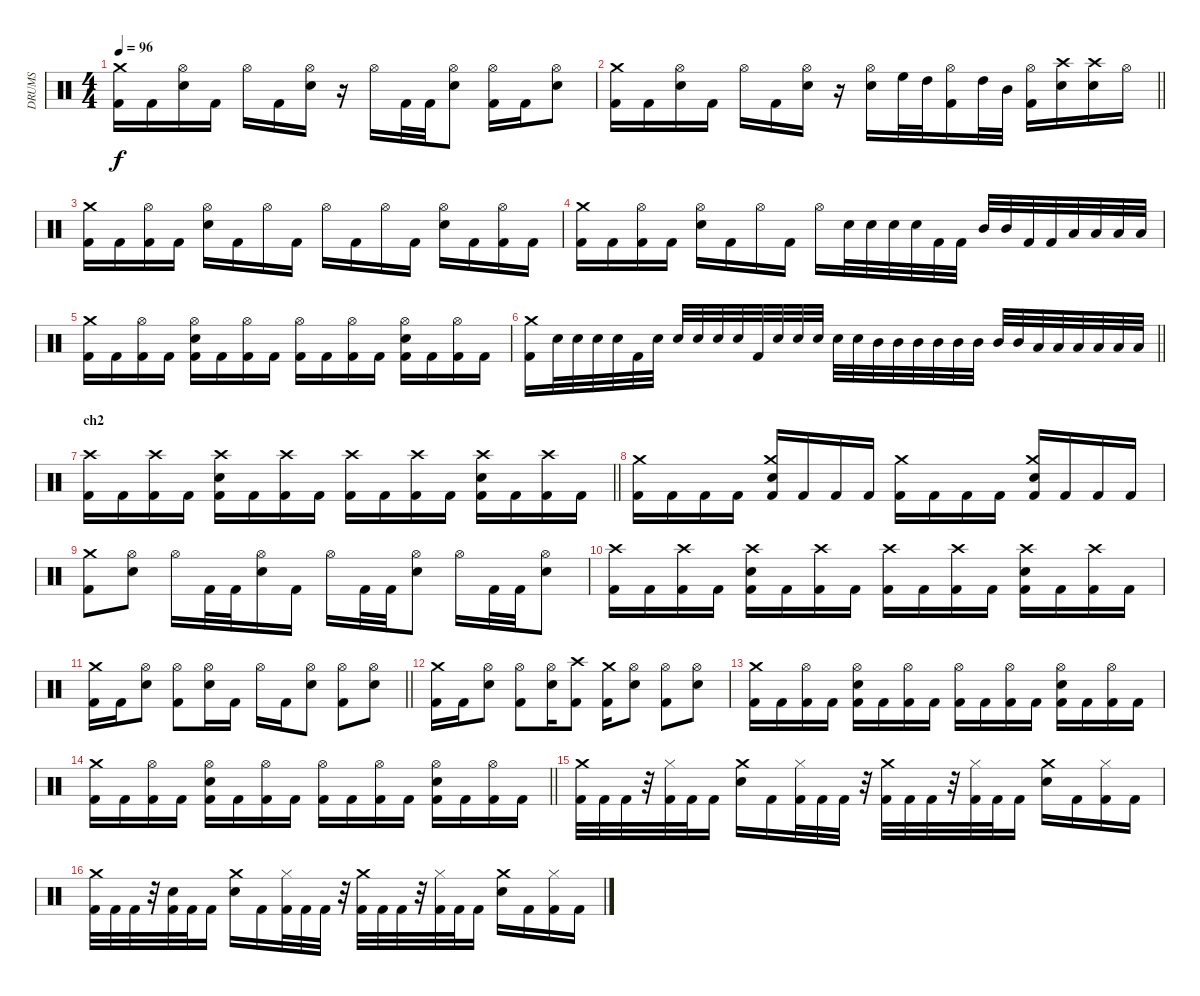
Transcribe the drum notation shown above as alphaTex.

\track ("DRUMS" "DRUMS") {instrument percussion}
\staff {score}
\articulation defaults
\ts (4 4)
\tempo 96
\clef neutral
\ks c
("Kick (hit) 2" "Crash medium (hit)").16{dy f} "Kick (hit) 2".16 ("Electric Snare (hit)" "Hi-Hat (open)").16 "Kick (hit) 2".16 "Hi-Hat (open)".16 "Kick (hit) 2".16 ("Electric Snare (hit)" "Hi-Hat (open)").16 r.16 "Hi-Hat (open)".16 "Kick (hit) 2".32 "Kick (hit) 2".32 ("Electric Snare (hit)" "Hi-Hat (open)").8 ("Kick (hit) 2" "Hi-Hat (open)").16 "Kick (hit) 2".16 ("Electric Snare (hit)" "Hi-Hat (open)").8 |
\barLineRight lightlight
("Kick (hit) 2" "Crash medium (hit)").16 "Kick (hit) 2".16 ("Electric Snare (hit)" "Hi-Hat (open)").16 "Kick (hit) 2".16 "Hi-Hat (open)".16 "Kick (hit) 2".16 ("Electric Snare (hit)" "Hi-Hat (open)").16 r.16 ("Electric Snare (hit)" "Hi-Hat (open)").16 "High Floor Tom (hit)".32 "High Tom (hit)".32 ("Kick (hit) 2" "Hi-Hat (open)").16 "High Tom (hit)".32 "Mid Tom (hit)".32 ("Kick (hit) 2" "Hi-Hat (open)").16 ("Electric Snare (hit)" "Crash high (hit)").16 ("Electric Snare (hit)" "Crash high (hit)").16 "Hi-Hat (open)".16 |
("Kick (hit) 2" "Crash medium (hit)").16 "Kick (hit) 2".16 ("Kick (hit) 2" "Hi-Hat (open)").16 "Kick (hit) 2".16 ("Electric Snare (hit)" "Hi-Hat (open)").16 "Kick (hit) 2".16 "Hi-Hat (open)".16 "Kick (hit) 2".16 "Hi-Hat (open)".16 "Kick (hit) 2".16 "Hi-Hat (open)".16 "Kick (hit) 2".16 ("Electric Snare (hit)" "Hi-Hat (open)").16 "Kick (hit) 2".16 ("Kick (hit) 2" "Hi-Hat (open)").16 "Kick (hit) 2".16 |
("Kick (hit) 2" "Crash medium (hit)").16 "Kick (hit) 2".16 ("Kick (hit) 2" "Hi-Hat (open)").16 "Kick (hit) 2".16 ("Electric Snare (hit)" "Hi-Hat (open)").16 "Kick (hit) 2".16 "Hi-Hat (open)".16 "Kick (hit) 2".16 "Hi-Hat (open)".16 "Electric Snare (hit)".32 "Electric Snare (hit)".32 "Electric Snare (hit)".32 "Electric Snare (hit)".32 "Kick (hit) 2".32 "Kick (hit) 2".32 "Mid Tom (hit)".32 "Mid Tom (hit)".32 "Kick (hit) 2".32 "Kick (hit) 2".32 "Low Tom (hit)".32 "Low Tom (hit)".32 "Low Tom (hit)".32 "Low Tom (hit)".32 |
("Kick (hit) 2" "Crash medium (hit)").16 "Kick (hit) 2".16 ("Kick (hit) 2" "Hi-Hat (open)").16 "Kick (hit) 2".16 ("Kick (hit) 2" "Electric Snare (hit)" "Hi-Hat (open)").16 "Kick (hit) 2".16 ("Kick (hit) 2" "Hi-Hat (open)").16 "Kick (hit) 2".16 ("Kick (hit) 2" "Hi-Hat (open)").16 "Kick (hit) 2".16 ("Kick (hit) 2" "Hi-Hat (open)").16 "Kick (hit) 2".16 ("Kick (hit) 2" "Electric Snare (hit)" "Hi-Hat (open)").16 "Kick (hit) 2".16 ("Kick (hit) 2" "Hi-Hat (open)").16 "Kick (hit) 2".16 |
\barLineRight lightlight
("Kick (hit) 2" "Crash medium (hit)").16 "Electric Snare (hit)".32 "Electric Snare (hit)".32 "Electric Snare (hit)".32 "Electric Snare (hit)".32 "Kick (hit) 2".32 "Electric Snare (hit)".32 "Electric Snare (hit)".32 "Electric Snare (hit)".32 "Electric Snare (hit)".32 "Electric Snare (hit)".32 "Kick (hit) 2".32 "Electric Snare (hit)".32 "Electric Snare (hit)".32 "Electric Snare (hit)".32 "Electric Snare (hit)".32 "Electric Snare (hit)".32 "Mid Tom (hit)".32 "Mid Tom (hit)".32 "Mid Tom (hit)".32 "Mid Tom (hit)".32 "Mid Tom (hit)".32 "Mid Tom (hit)".32 "Mid Tom (hit)".32 "Mid Tom (hit)".32 "Low Tom (hit)".32 "Low Tom (hit)".32 "Low Tom (hit)".32 "Low Tom (hit)".32 "Low Tom (hit)".32 "Low Tom (hit)".32 |
\section ("" "ch2")
\barLineRight lightlight
("Kick (hit) 2" "Crash high (hit)").16 "Kick (hit) 2".16 ("Kick (hit) 2" "Crash high (hit)").16 "Kick (hit) 2".16 ("Kick (hit) 2" "Electric Snare (hit)" "Crash high (hit)").16 "Kick (hit) 2".16 ("Kick (hit) 2" "Crash high (hit)").16 "Kick (hit) 2".16 ("Kick (hit) 2" "Crash high (hit)").16 "Kick (hit) 2".16 ("Kick (hit) 2" "Crash high (hit)").16 "Kick (hit) 2".16 ("Kick (hit) 2" "Electric Snare (hit)" "Crash high (hit)").16 "Kick (hit) 2".16 ("Kick (hit) 2" "Crash high (hit)").16 "Kick (hit) 2".16 |
("Kick (hit) 2" "Crash medium (hit)").16 "Kick (hit) 2".16 "Kick (hit) 2".16 "Kick (hit) 2".16 ("Kick (hit) 2" "Electric Snare (hit)" "Crash medium (hit)").16 "Kick (hit) 2".16 "Kick (hit) 2".16 "Kick (hit) 2".16 ("Kick (hit) 2" "Crash medium (hit)").16 "Kick (hit) 2".16 "Kick (hit) 2".16 "Kick (hit) 2".16 ("Kick (hit) 2" "Electric Snare (hit)" "Crash medium (hit)").16 "Kick (hit) 2".16 "Kick (hit) 2".16 "Kick (hit) 2".16 |
("Kick (hit) 2" "Crash medium (hit)").8 ("Electric Snare (hit)" "Hi-Hat (open)").8 "Hi-Hat (open)".16 "Kick (hit) 2".32 "Kick (hit) 2".32 ("Electric Snare (hit)" "Hi-Hat (open)").16 "Kick (hit) 2".16 "Hi-Hat (open)".16 "Kick (hit) 2".32 "Kick (hit) 2".32 ("Electric Snare (hit)" "Hi-Hat (open)").8 "Hi-Hat (open)".16 "Kick (hit) 2".32 "Kick (hit) 2".32 ("Electric Snare (hit)" "Hi-Hat (open)").8 |
("Kick (hit) 2" "Crash high (hit)").16 "Kick (hit) 2".16 ("Kick (hit) 2" "Crash high (hit)").16 "Kick (hit) 2".16 ("Kick (hit) 2" "Electric Snare (hit)" "Crash high (hit)").16 "Kick (hit) 2".16 ("Kick (hit) 2" "Crash high (hit)").16 "Kick (hit) 2".16 ("Kick (hit) 2" "Crash high (hit)").16 "Kick (hit) 2".16 ("Kick (hit) 2" "Crash high (hit)").16 "Kick (hit) 2".16 ("Kick (hit) 2" "Electric Snare (hit)" "Crash high (hit)").16 "Kick (hit) 2".16 ("Kick (hit) 2" "Crash high (hit)").16 "Kick (hit) 2".16 |
\barLineRight lightlight
("Kick (hit) 2" "Crash medium (hit)").16 "Kick (hit) 2".16 ("Electric Snare (hit)" "Hi-Hat (open)").8 ("Kick (hit) 2" "Hi-Hat (open)").8 ("Electric Snare (hit)" "Hi-Hat (open)").16 "Kick (hit) 2".16 "Hi-Hat (open)".16 "Kick (hit) 2".16 ("Electric Snare (hit)" "Hi-Hat (open)").8 ("Kick (hit) 2" "Hi-Hat (open)").8 ("Electric Snare (hit)" "Hi-Hat (open)").8 |
("Kick (hit) 2" "Crash medium (hit)").16 "Kick (hit) 2".16 ("Electric Snare (hit)" "Hi-Hat (open)").8 ("Kick (hit) 2" "Hi-Hat (open)").8 ("Electric Snare (hit)" "Hi-Hat (open)").16 ("Kick (hit) 2" "Crash high (hit)").8 ("Kick (hit) 2" "Crash medium (hit)").16 ("Electric Snare (hit)" "Hi-Hat (open)").8 ("Kick (hit) 2" "Hi-Hat (open)").8 ("Electric Snare (hit)" "Hi-Hat (open)").8 |
("Kick (hit) 2" "Crash medium (hit)").16 "Kick (hit) 2".16 ("Kick (hit) 2" "Hi-Hat (open)").16 "Kick (hit) 2".16 ("Kick (hit) 2" "Electric Snare (hit)" "Hi-Hat (open)").16 "Kick (hit) 2".16 ("Kick (hit) 2" "Hi-Hat (open)").16 "Kick (hit) 2".16 ("Kick (hit) 2" "Hi-Hat (open)").16 "Kick (hit) 2".16 ("Kick (hit) 2" "Hi-Hat (open)").16 "Kick (hit) 2".16 ("Kick (hit) 2" "Electric Snare (hit)" "Hi-Hat (open)").16 "Kick (hit) 2".16 ("Kick (hit) 2" "Hi-Hat (open)").16 "Kick (hit) 2".16 |
\barLineRight lightlight
("Kick (hit) 2" "Crash medium (hit)").16 "Kick (hit) 2".16 ("Kick (hit) 2" "Hi-Hat (open)").16 "Kick (hit) 2".16 ("Kick (hit) 2" "Electric Snare (hit)" "Hi-Hat (open)").16 "Kick (hit) 2".16 ("Kick (hit) 2" "Hi-Hat (open)").16 "Kick (hit) 2".16 ("Kick (hit) 2" "Hi-Hat (open)").16 "Kick (hit) 2".16 ("Kick (hit) 2" "Hi-Hat (open)").16 "Kick (hit) 2".16 ("Kick (hit) 2" "Electric Snare (hit)" "Hi-Hat (open)").16 "Kick (hit) 2".16 ("Kick (hit) 2" "Hi-Hat (open)").16 "Kick (hit) 2".16 |
("Kick (hit) 2" "Crash medium (hit)").32 "Kick (hit) 2".32 "Kick (hit) 2".32 r.32 ("Kick (hit) 2" "Hi-Hat (closed)").32 "Kick (hit) 2".32 "Kick (hit) 2".16 ("Electric Snare (hit)" "Crash medium (hit)").16 "Kick (hit) 2".16 ("Kick (hit) 2" "Hi-Hat (closed)").32 "Kick (hit) 2".32 "Kick (hit) 2".32 r.32 ("Kick (hit) 2" "Crash medium (hit)").32 "Kick (hit) 2".32 "Kick (hit) 2".32 r.32 ("Kick (hit) 2" "Hi-Hat (closed)").32 "Kick (hit) 2".32 "Kick (hit) 2".16 ("Electric Snare (hit)" "Crash medium (hit)").16 "Kick (hit) 2".16 ("Kick (hit) 2" "Hi-Hat (closed)").16 "Kick (hit) 2".16 |
("Kick (hit) 2" "Crash medium (hit)").32 "Kick (hit) 2".32 "Kick (hit) 2".32 r.32 ("Kick (hit) 2" "Snare (hit)").32 "Kick (hit) 2".32 "Kick (hit) 2".16 ("Electric Snare (hit)" "Crash medium (hit)").16 "Kick (hit) 2".16 ("Kick (hit) 2" "Hi-Hat (closed)").32 "Kick (hit) 2".32 "Kick (hit) 2".32 r.32 ("Kick (hit) 2" "Crash medium (hit)").32 "Kick (hit) 2".32 "Kick (hit) 2".32 r.32 ("Kick (hit) 2" "Hi-Hat (closed)").32 "Kick (hit) 2".32 "Kick (hit) 2".16 ("Electric Snare (hit)" "Crash medium (hit)").16 "Kick (hit) 2".16 ("Kick (hit) 2" "Hi-Hat (closed)").16 "Kick (hit) 2".16
